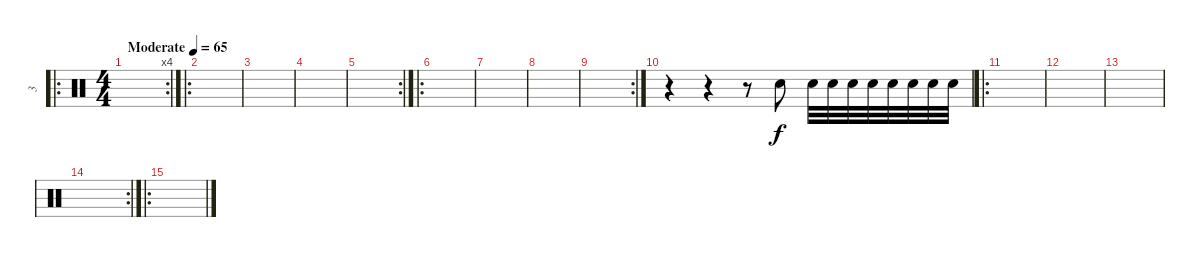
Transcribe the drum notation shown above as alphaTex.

\track ("3" "3") {instrument percussion}
\staff {score}
\articulation defaults
\ro
\rc 4
\ts (4 4)
\tempo (65 "Moderate")
\clef neutral
\ks c
|
\ro
|
|
|
\rc 2
|
\ro
|
|
|
\rc 2
|
r.4 r.4 r.8 "Snare (hit) 2".8 "Snare (hit) 2".32 "Snare (hit) 2".32 "Snare (hit) 2".32 "Snare (hit) 2".32 "Snare (hit) 2".32 "Snare (hit) 2".32 "Snare (hit) 2".32 "Snare (hit) 2".32 |
\ro
|
|
|
\rc 2
|
\ro
